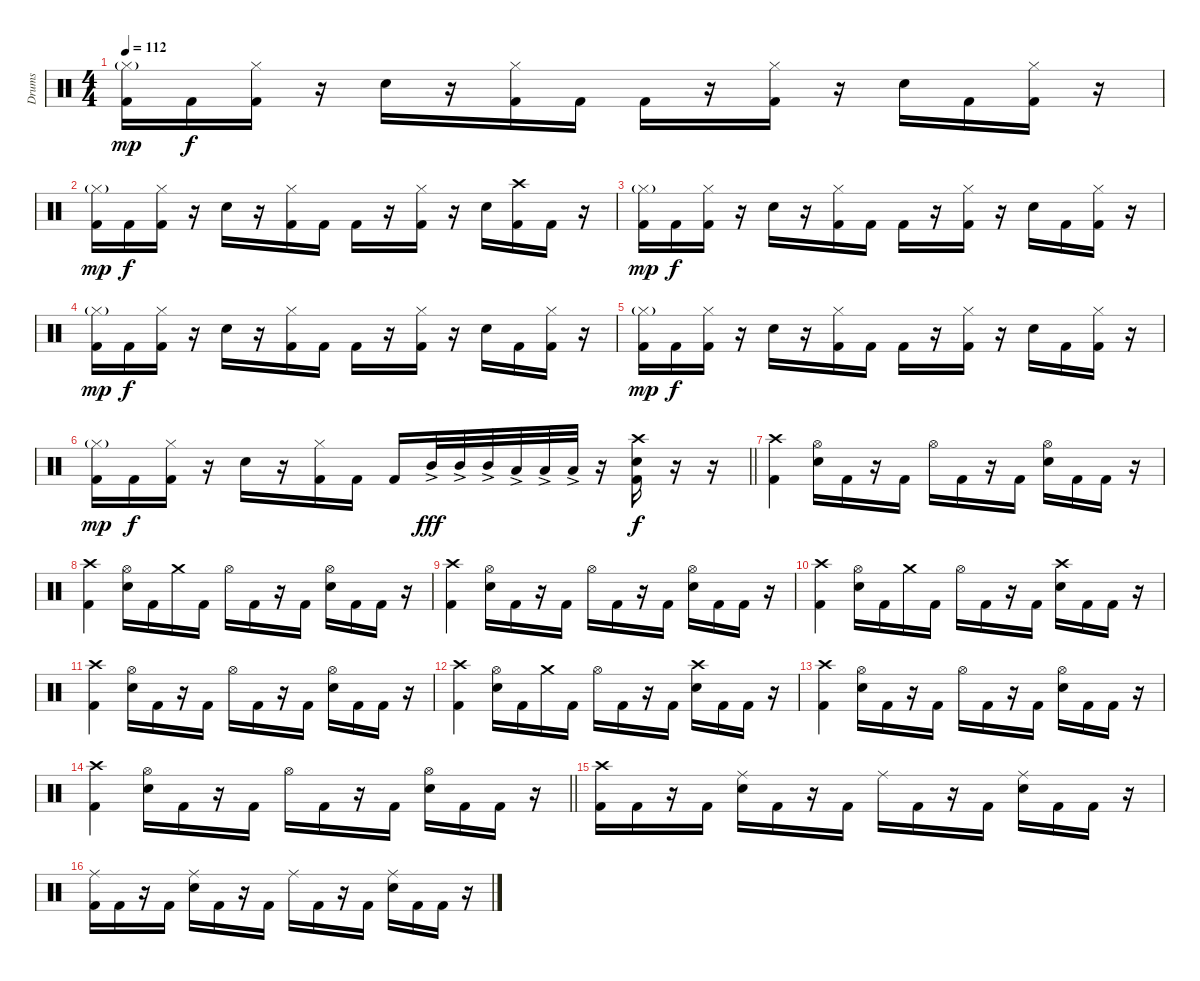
\track ("Drums" "Drums") {instrument percussion}
\staff {score}
\articulation defaults
\ts (4 4)
\tempo 112
\clef neutral
\ks c
("Hi-Hat (closed)"{g} "Kick (hit) 2").16{dy mp} "Kick (hit) 2".16{dy f} ("Hi-Hat (closed)" "Kick (hit) 2").16 r.16 "Electric Snare (hit)".16 r.16 ("Hi-Hat (closed)" "Kick (hit) 2").16 "Kick (hit) 2".16 "Kick (hit) 2".16 r.16 ("Hi-Hat (closed)" "Kick (hit) 2").16 r.16 "Electric Snare (hit)".16 "Kick (hit) 2".16 ("Hi-Hat (closed)" "Kick (hit) 2").16 r.16 |
("Hi-Hat (closed)"{g} "Kick (hit) 2").16{dy mp} "Kick (hit) 2".16{dy f} ("Hi-Hat (closed)" "Kick (hit) 2").16 r.16 "Electric Snare (hit)".16 r.16 ("Hi-Hat (closed)" "Kick (hit) 2").16 "Kick (hit) 2".16 "Kick (hit) 2".16 r.16 ("Hi-Hat (closed)" "Kick (hit) 2").16 r.16 "Electric Snare (hit)".16 ("Crash high (hit)" "Kick (hit) 2").16 "Kick (hit) 2".16 r.16 |
("Hi-Hat (closed)"{g} "Kick (hit) 2").16{dy mp} "Kick (hit) 2".16{dy f} ("Hi-Hat (closed)" "Kick (hit) 2").16 r.16 "Electric Snare (hit)".16 r.16 ("Hi-Hat (closed)" "Kick (hit) 2").16 "Kick (hit) 2".16 "Kick (hit) 2".16 r.16 ("Hi-Hat (closed)" "Kick (hit) 2").16 r.16 "Electric Snare (hit)".16 "Kick (hit) 2".16 ("Hi-Hat (closed)" "Kick (hit) 2").16 r.16 |
("Hi-Hat (closed)"{g} "Kick (hit) 2").16{dy mp} "Kick (hit) 2".16{dy f} ("Hi-Hat (closed)" "Kick (hit) 2").16 r.16 "Electric Snare (hit)".16 r.16 ("Hi-Hat (closed)" "Kick (hit) 2").16 "Kick (hit) 2".16 "Kick (hit) 2".16 r.16 ("Hi-Hat (closed)" "Kick (hit) 2").16 r.16 "Electric Snare (hit)".16 "Kick (hit) 2".16 ("Hi-Hat (closed)" "Kick (hit) 2").16 r.16 |
("Hi-Hat (closed)"{g} "Kick (hit) 2").16{dy mp} "Kick (hit) 2".16{dy f} ("Hi-Hat (closed)" "Kick (hit) 2").16 r.16 "Electric Snare (hit)".16 r.16 ("Hi-Hat (closed)" "Kick (hit) 2").16 "Kick (hit) 2".16 "Kick (hit) 2".16 r.16 ("Hi-Hat (closed)" "Kick (hit) 2").16 r.16 "Electric Snare (hit)".16 "Kick (hit) 2".16 ("Hi-Hat (closed)" "Kick (hit) 2").16 r.16 |
\barLineRight lightlight
("Hi-Hat (closed)"{g} "Kick (hit) 2").16{dy mp} "Kick (hit) 2".16{dy f} ("Hi-Hat (closed)" "Kick (hit) 2").16 r.16 "Electric Snare (hit)".16 r.16 ("Hi-Hat (closed)" "Kick (hit) 2").16 "Kick (hit) 2".16 "Kick (hit) 2".16 "Mid Tom (hit)"{ac}.32{dy fff} "Mid Tom (hit)"{ac}.32 "Mid Tom (hit)"{ac}.32 "Low Tom (hit)"{ac}.32 "Low Tom (hit)"{ac}.32 "Low Tom (hit)"{ac}.32 r.16 ("Crash high (hit)" "Electric Snare (hit)" "Kick (hit) 2").16{dy f} r.16 r.16 |
("Crash high (hit)" "Kick (hit) 2").4 ("Hi-Hat (open)" "Electric Snare (hit)").16 "Kick (hit) 2".16 r.16 "Kick (hit) 2".16 "Hi-Hat (open)".16 "Kick (hit) 2".16 r.16 "Kick (hit) 2".16 ("Hi-Hat (open)" "Electric Snare (hit)").16 "Kick (hit) 2".16 "Kick (hit) 2".16 r.16 |
("Crash high (hit)" "Kick (hit) 2").4 ("Hi-Hat (open)" "Electric Snare (hit)").16 "Kick (hit) 2".16 "Crash medium (hit)".16 "Kick (hit) 2".16 "Hi-Hat (open)".16 "Kick (hit) 2".16 r.16 "Kick (hit) 2".16 ("Hi-Hat (open)" "Electric Snare (hit)").16 "Kick (hit) 2".16 "Kick (hit) 2".16 r.16 |
("Crash high (hit)" "Kick (hit) 2").4 ("Hi-Hat (open)" "Electric Snare (hit)").16 "Kick (hit) 2".16 r.16 "Kick (hit) 2".16 "Hi-Hat (open)".16 "Kick (hit) 2".16 r.16 "Kick (hit) 2".16 ("Hi-Hat (open)" "Electric Snare (hit)").16 "Kick (hit) 2".16 "Kick (hit) 2".16 r.16 |
("Crash high (hit)" "Kick (hit) 2").4 ("Hi-Hat (open)" "Electric Snare (hit)").16 "Kick (hit) 2".16 "Crash medium (hit)".16 "Kick (hit) 2".16 "Hi-Hat (open)".16 "Kick (hit) 2".16 r.16 "Kick (hit) 2".16 ("Crash high (hit)" "Electric Snare (hit)").16 "Kick (hit) 2".16 "Kick (hit) 2".16 r.16 |
("Crash high (hit)" "Kick (hit) 2").4 ("Hi-Hat (open)" "Electric Snare (hit)").16 "Kick (hit) 2".16 r.16 "Kick (hit) 2".16 "Hi-Hat (open)".16 "Kick (hit) 2".16 r.16 "Kick (hit) 2".16 ("Hi-Hat (open)" "Electric Snare (hit)").16 "Kick (hit) 2".16 "Kick (hit) 2".16 r.16 |
("Crash high (hit)" "Kick (hit) 2").4 ("Hi-Hat (open)" "Electric Snare (hit)").16 "Kick (hit) 2".16 "Crash medium (hit)".16 "Kick (hit) 2".16 "Hi-Hat (open)".16 "Kick (hit) 2".16 r.16 "Kick (hit) 2".16 ("Crash high (hit)" "Electric Snare (hit)").16 "Kick (hit) 2".16 "Kick (hit) 2".16 r.16 |
("Crash high (hit)" "Kick (hit) 2").4 ("Hi-Hat (open)" "Electric Snare (hit)").16 "Kick (hit) 2".16 r.16 "Kick (hit) 2".16 "Hi-Hat (open)".16 "Kick (hit) 2".16 r.16 "Kick (hit) 2".16 ("Hi-Hat (open)" "Electric Snare (hit)").16 "Kick (hit) 2".16 "Kick (hit) 2".16 r.16 |
\barLineRight lightlight
("Crash high (hit)" "Kick (hit) 2").4 ("Hi-Hat (open)" "Electric Snare (hit)").16 "Kick (hit) 2".16 r.16 "Kick (hit) 2".16 "Hi-Hat (open)".16 "Kick (hit) 2".16 r.16 "Kick (hit) 2".16 ("Hi-Hat (open)" "Electric Snare (hit)").16 "Kick (hit) 2".16 "Kick (hit) 2".16 r.16 |
("Crash high (hit)" "Kick (hit) 2").16 "Kick (hit) 2".16 r.16 "Kick (hit) 2".16 ("Ride (middle)" "Electric Snare (hit)").16 "Kick (hit) 2".16 r.16 "Kick (hit) 2".16 "Ride (middle)".16 "Kick (hit) 2".16 r.16 "Kick (hit) 2".16 ("Ride (middle)" "Electric Snare (hit)").16 "Kick (hit) 2".16 "Kick (hit) 2".16 r.16 |
("Ride (middle)" "Kick (hit) 2").16 "Kick (hit) 2".16 r.16 "Kick (hit) 2".16 ("Ride (middle)" "Electric Snare (hit)").16 "Kick (hit) 2".16 r.16 "Kick (hit) 2".16 "Ride (middle)".16 "Kick (hit) 2".16 r.16 "Kick (hit) 2".16 ("Ride (middle)" "Electric Snare (hit)").16 "Kick (hit) 2".16 "Kick (hit) 2".16 r.16
